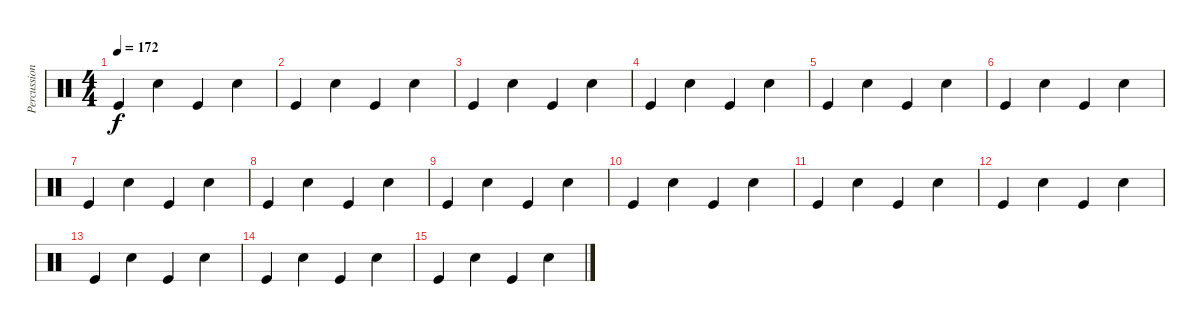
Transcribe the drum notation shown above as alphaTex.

\track ("Percussion" "Percussion") {instrument percussion}
\staff {score}
\articulation defaults
\ts (4 4)
\tempo 172
\clef neutral
\ks c "Kick (hit)".4{dy f} "Snare (hit) 2".4 "Kick (hit)".4 "Snare (hit) 2".4
|
"Kick (hit)".4 "Snare (hit) 2".4 "Kick (hit)".4 "Snare (hit) 2".4 |
"Kick (hit)".4 "Snare (hit) 2".4 "Kick (hit)".4 "Snare (hit) 2".4 |
"Kick (hit)".4 "Snare (hit) 2".4 "Kick (hit)".4 "Snare (hit) 2".4 |
"Kick (hit)".4 "Snare (hit) 2".4 "Kick (hit)".4 "Snare (hit) 2".4 |
"Kick (hit)".4 "Snare (hit) 2".4 "Kick (hit)".4 "Snare (hit) 2".4 |
"Kick (hit)".4 "Snare (hit) 2".4 "Kick (hit)".4 "Snare (hit) 2".4 |
"Kick (hit)".4 "Snare (hit) 2".4 "Kick (hit)".4 "Snare (hit) 2".4 |
"Kick (hit)".4 "Snare (hit) 2".4 "Kick (hit)".4 "Snare (hit) 2".4 |
"Kick (hit)".4 "Snare (hit) 2".4 "Kick (hit)".4 "Snare (hit) 2".4 |
"Kick (hit)".4 "Snare (hit) 2".4 "Kick (hit)".4 "Snare (hit) 2".4 |
"Kick (hit)".4 "Snare (hit) 2".4 "Kick (hit)".4 "Snare (hit) 2".4 |
"Kick (hit)".4 "Snare (hit) 2".4 "Kick (hit)".4 "Snare (hit) 2".4 |
"Kick (hit)".4 "Snare (hit) 2".4 "Kick (hit)".4 "Snare (hit) 2".4 |
"Kick (hit)".4 "Snare (hit) 2".4 "Kick (hit)".4 "Snare (hit) 2".4
